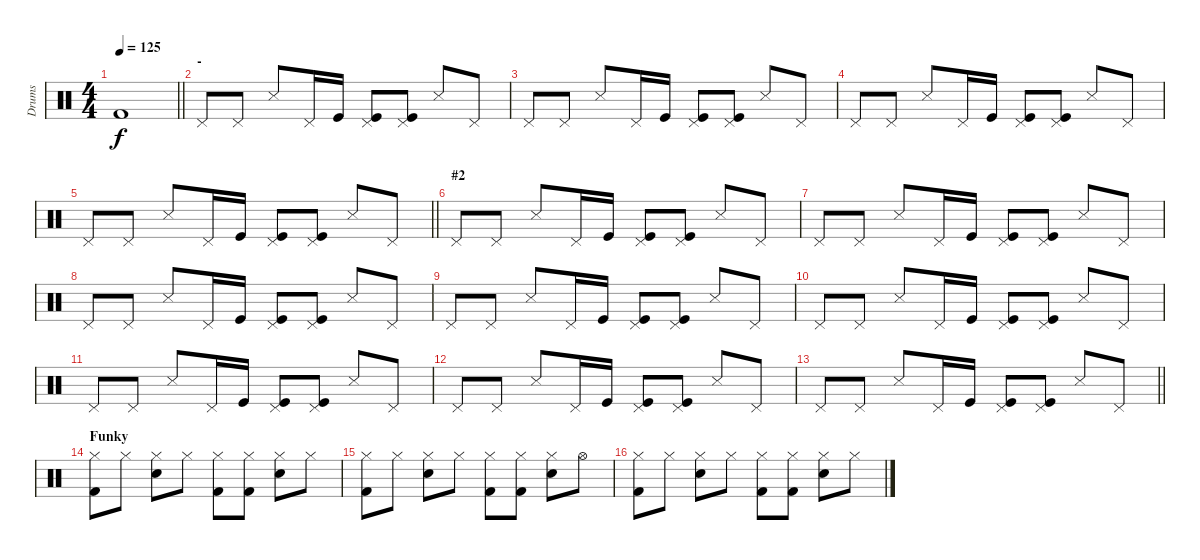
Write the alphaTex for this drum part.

\track ("Drums" "Drums") {instrument percussion}
\staff {score}
\articulation defaults
\ts (4 4)
\tempo 125
\clef neutral
\barLineRight lightlight
\ks c "Kick (hit) 2".1{dy f}
|
\section ("" "-")
"Pedal Hi-Hat (hit)".8 "Pedal Hi-Hat (hit)".8 "Snare (side stick) 3".8 "Pedal Hi-Hat (hit)".16 "Kick (hit)".16 ("Pedal Hi-Hat (hit)" "Kick (hit)").8 ("Pedal Hi-Hat (hit)" "Kick (hit)").8 "Snare (side stick) 3".8 "Pedal Hi-Hat (hit)".8 |
"Pedal Hi-Hat (hit)".8 "Pedal Hi-Hat (hit)".8 "Snare (side stick) 3".8 "Pedal Hi-Hat (hit)".16 "Kick (hit)".16 ("Pedal Hi-Hat (hit)" "Kick (hit)").8 ("Pedal Hi-Hat (hit)" "Kick (hit)").8 "Snare (side stick) 3".8 "Pedal Hi-Hat (hit)".8 |
"Pedal Hi-Hat (hit)".8 "Pedal Hi-Hat (hit)".8 "Snare (side stick) 3".8 "Pedal Hi-Hat (hit)".16 "Kick (hit)".16 ("Pedal Hi-Hat (hit)" "Kick (hit)").8 ("Pedal Hi-Hat (hit)" "Kick (hit)").8 "Snare (side stick) 3".8 "Pedal Hi-Hat (hit)".8 |
\barLineRight lightlight "Pedal Hi-Hat (hit)".8 "Pedal Hi-Hat (hit)".8 "Snare (side stick) 3".8 "Pedal Hi-Hat (hit)".16 "Kick (hit)".16
("Pedal Hi-Hat (hit)" "Kick (hit)").8 ("Pedal Hi-Hat (hit)" "Kick (hit)").8 "Snare (side stick) 3".8 "Pedal Hi-Hat (hit)".8 |
\section ("" "#2")
"Pedal Hi-Hat (hit)".8 "Pedal Hi-Hat (hit)".8 "Snare (side stick) 3".8 "Pedal Hi-Hat (hit)".16 "Kick (hit)".16 ("Pedal Hi-Hat (hit)" "Kick (hit)").8 ("Pedal Hi-Hat (hit)" "Kick (hit)").8 "Snare (side stick) 3".8 "Pedal Hi-Hat (hit)".8 |
"Pedal Hi-Hat (hit)".8 "Pedal Hi-Hat (hit)".8 "Snare (side stick) 3".8 "Pedal Hi-Hat (hit)".16 "Kick (hit)".16 ("Pedal Hi-Hat (hit)" "Kick (hit)").8 ("Pedal Hi-Hat (hit)" "Kick (hit)").8 "Snare (side stick) 3".8 "Pedal Hi-Hat (hit)".8 |
"Pedal Hi-Hat (hit)".8 "Pedal Hi-Hat (hit)".8 "Snare (side stick) 3".8 "Pedal Hi-Hat (hit)".16 "Kick (hit)".16 ("Pedal Hi-Hat (hit)" "Kick (hit)").8 ("Pedal Hi-Hat (hit)" "Kick (hit)").8 "Snare (side stick) 3".8 "Pedal Hi-Hat (hit)".8 |
"Pedal Hi-Hat (hit)".8 "Pedal Hi-Hat (hit)".8 "Snare (side stick) 3".8 "Pedal Hi-Hat (hit)".16 "Kick (hit)".16 ("Pedal Hi-Hat (hit)" "Kick (hit)").8 ("Pedal Hi-Hat (hit)" "Kick (hit)").8 "Snare (side stick) 3".8 "Pedal Hi-Hat (hit)".8 |
"Pedal Hi-Hat (hit)".8 "Pedal Hi-Hat (hit)".8 "Snare (side stick) 3".8 "Pedal Hi-Hat (hit)".16 "Kick (hit)".16 ("Pedal Hi-Hat (hit)" "Kick (hit)").8 ("Pedal Hi-Hat (hit)" "Kick (hit)").8 "Snare (side stick) 3".8 "Pedal Hi-Hat (hit)".8 |
"Pedal Hi-Hat (hit)".8 "Pedal Hi-Hat (hit)".8 "Snare (side stick) 3".8 "Pedal Hi-Hat (hit)".16 "Kick (hit)".16 ("Pedal Hi-Hat (hit)" "Kick (hit)").8 ("Pedal Hi-Hat (hit)" "Kick (hit)").8 "Snare (side stick) 3".8 "Pedal Hi-Hat (hit)".8 |
"Pedal Hi-Hat (hit)".8 "Pedal Hi-Hat (hit)".8 "Snare (side stick) 3".8 "Pedal Hi-Hat (hit)".16 "Kick (hit)".16 ("Pedal Hi-Hat (hit)" "Kick (hit)").8 ("Pedal Hi-Hat (hit)" "Kick (hit)").8 "Snare (side stick) 3".8 "Pedal Hi-Hat (hit)".8 |
\barLineRight lightlight "Pedal Hi-Hat (hit)".8 "Pedal Hi-Hat (hit)".8 "Snare (side stick) 3".8 "Pedal Hi-Hat (hit)".16 "Kick (hit)".16
("Pedal Hi-Hat (hit)" "Kick (hit)").8 ("Pedal Hi-Hat (hit)" "Kick (hit)").8 "Snare (side stick) 3".8 "Pedal Hi-Hat (hit)".8 |
\section ("" "Funky")
("Hi-Hat (closed)" "Kick (hit) 2").8 "Hi-Hat (closed)".8 ("Hi-Hat (closed)" "Electric Snare (hit)").8 "Hi-Hat (closed)".8 ("Hi-Hat (closed)" "Kick (hit) 2").8 ("Hi-Hat (closed)" "Kick (hit) 2").8 ("Hi-Hat (closed)" "Electric Snare (hit)").8 "Hi-Hat (closed)".8 |
("Hi-Hat (closed)" "Kick (hit) 2").8 "Hi-Hat (closed)".8 ("Hi-Hat (closed)" "Electric Snare (hit)").8 "Hi-Hat (closed)".8 ("Hi-Hat (closed)" "Kick (hit) 2").8 ("Hi-Hat (closed)" "Kick (hit) 2").8 ("Hi-Hat (closed)" "Electric Snare (hit)").8 "Hi-Hat (open)".8 |
("Hi-Hat (closed)" "Kick (hit) 2").8 "Hi-Hat (closed)".8 ("Hi-Hat (closed)" "Electric Snare (hit)").8 "Hi-Hat (closed)".8 ("Hi-Hat (closed)" "Kick (hit) 2").8 ("Hi-Hat (closed)" "Kick (hit) 2").8 ("Hi-Hat (closed)" "Electric Snare (hit)").8 "Hi-Hat (closed)".8
